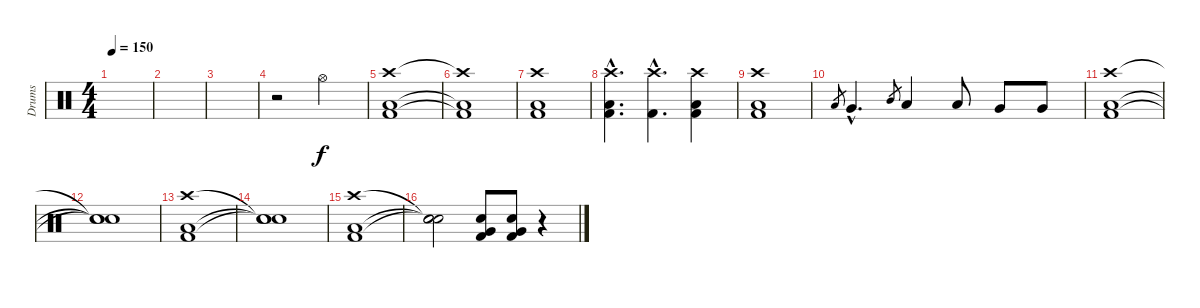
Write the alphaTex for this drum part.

\track ("Drums" "Drums") {instrument percussion}
\staff {score}
\articulation defaults
\ts (4 4)
\tempo 150
\clef neutral
\ks c
|
|
|
r.2 "Hi-Hat (open)".2{volume 10} |
("Crash high (hit)" "Low Floor Tom (hit)" "Kick (hit) 2").1{volume 13} |
("Crash high (hit)"{t} "Low Floor Tom (hit)"{t} "Kick (hit) 2"{t}).1 |
("Crash high (hit)" "Low Floor Tom (hit)" "Kick (hit) 2").1 |
("Crash high (hit)"{hac} "Low Floor Tom (hit)"{hac} "Kick (hit) 2"{hac}).4{d} ("Crash high (hit)"{hac} "Kick (hit) 2"{hac}).4{d} ("Crash high (hit)" "Low Floor Tom (hit)" "Kick (hit) 2").4 |
("Crash high (hit)" "Low Floor Tom (hit)" "Kick (hit) 2").1 |
"Low Tom (hit)".8{gr} "Very Low Tom (hit)"{hac}.4{d} "Mid Tom (hit)".8{gr} "Low Tom (hit)".4 "Low Tom (hit)".8 "Very Low Tom (hit)".8 "Very Low Tom (hit)".8 |
("Crash high (hit)" "Low Floor Tom (hit)" "Kick (hit) 2").1 |
("Snare (hit)"{t} "Snare (hit)"{t} "Snare (hit)"{t}).1 |
("Crash high (hit)" "Low Floor Tom (hit)" "Kick (hit) 2").1 |
("Snare (hit)"{t} "Snare (hit)"{t} "Snare (hit)"{t}).1 |
("Crash high (hit)" "Low Floor Tom (hit)" "Kick (hit) 2").1 |
("Snare (hit)"{t} "Snare (hit)"{t} "Snare (hit)"{t}).2 ("Very Low Tom (hit)" "Snare (hit) 2" "Kick (hit) 2").8 ("Very Low Tom (hit)" "Snare (hit) 2" "Kick (hit) 2").8 r.4
